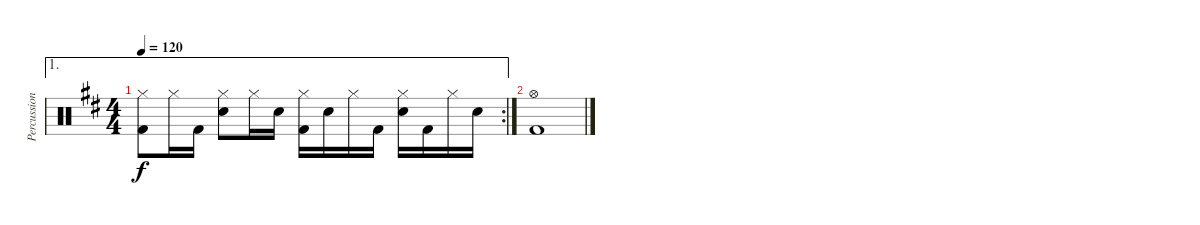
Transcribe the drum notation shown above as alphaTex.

\track ("Percussion" "Percussion") {instrument percussion}
\staff {score}
\articulation defaults
\ae 1
\rc 2
\ts (4 4)
\tempo 120
\clef neutral
\ks d
("Hi-Hat (closed)" "Kick (hit) 2").8{dy f} "Hi-Hat (closed)".16 "Kick (hit) 2".16 ("Hi-Hat (closed)" "Snare (hit) 2").8 "Hi-Hat (closed)".16 "Snare (hit) 2".16 ("Hi-Hat (closed)" "Kick (hit) 2").16 "Snare (hit) 2".16 "Hi-Hat (closed)".16 "Kick (hit) 2".16 ("Hi-Hat (closed)" "Snare (hit) 2").16 "Kick (hit) 2".16 "Hi-Hat (closed)".16 "Snare (hit) 2".16 |
("Hi-Hat (open)" "Kick (hit) 2").1
